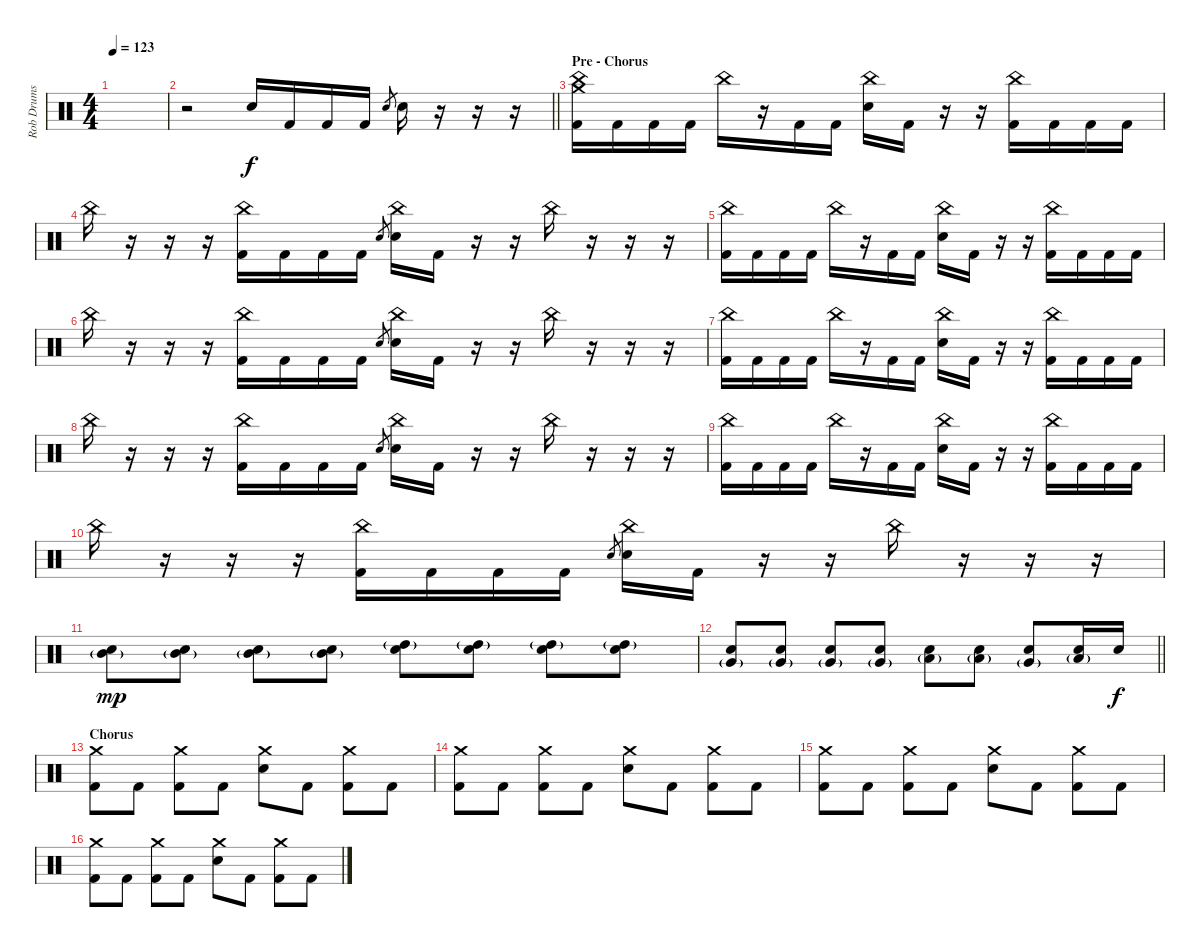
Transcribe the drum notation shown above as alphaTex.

\track ("Rob Drums" "Rob Drums") {instrument percussion}
\staff {score}
\articulation defaults
\ts (4 4)
\tempo 123
\clef neutral
\ks c
|
\barLineRight lightlight
r.2 "Electric Snare (hit)".16 "Kick (hit) 2".16 "Kick (hit) 2".16 "Kick (hit) 2".16 "Electric Snare (hit)".8{gr} "Electric Snare (hit)".16 r.16 r.16 r.16 |
\section ("" "Pre - Chorus")
("China (hit)" "Crash medium (hit)" "Kick (hit) 2").16 "Kick (hit) 2".16 "Kick (hit) 2".16 "Kick (hit) 2".16 "China (hit)".16 r.16 "Kick (hit) 2".16 "Kick (hit) 2".16 ("China (hit)" "Electric Snare (hit)").16 "Kick (hit) 2".16 r.16 r.16 ("China (hit)" "Kick (hit) 2").16 "Kick (hit) 2".16 "Kick (hit) 2".16 "Kick (hit) 2".16 |
"China (hit)".16 r.16 r.16 r.16 ("China (hit)" "Kick (hit) 2").16 "Kick (hit) 2".16 "Kick (hit) 2".16 "Kick (hit) 2".16 "Electric Snare (hit)".8{gr} ("China (hit)" "Electric Snare (hit)").16 "Kick (hit) 2".16 r.16 r.16 "China (hit)".16 r.16 r.16 r.16 |
("China (hit)" "Kick (hit) 2").16 "Kick (hit) 2".16 "Kick (hit) 2".16 "Kick (hit) 2".16 "China (hit)".16 r.16 "Kick (hit) 2".16 "Kick (hit) 2".16 ("China (hit)" "Electric Snare (hit)").16 "Kick (hit) 2".16 r.16 r.16 ("China (hit)" "Kick (hit) 2").16 "Kick (hit) 2".16 "Kick (hit) 2".16 "Kick (hit) 2".16 |
"China (hit)".16 r.16 r.16 r.16 ("China (hit)" "Kick (hit) 2").16 "Kick (hit) 2".16 "Kick (hit) 2".16 "Kick (hit) 2".16 "Electric Snare (hit)".8{gr} ("China (hit)" "Electric Snare (hit)").16 "Kick (hit) 2".16 r.16 r.16 "China (hit)".16 r.16 r.16 r.16 |
("China (hit)" "Kick (hit) 2").16 "Kick (hit) 2".16 "Kick (hit) 2".16 "Kick (hit) 2".16 "China (hit)".16 r.16 "Kick (hit) 2".16 "Kick (hit) 2".16 ("China (hit)" "Electric Snare (hit)").16 "Kick (hit) 2".16 r.16 r.16 ("China (hit)" "Kick (hit) 2").16 "Kick (hit) 2".16 "Kick (hit) 2".16 "Kick (hit) 2".16 |
"China (hit)".16 r.16 r.16 r.16 ("China (hit)" "Kick (hit) 2").16 "Kick (hit) 2".16 "Kick (hit) 2".16 "Kick (hit) 2".16 "Electric Snare (hit)".8{gr} ("China (hit)" "Electric Snare (hit)").16 "Kick (hit) 2".16 r.16 r.16 "China (hit)".16 r.16 r.16 r.16 |
("China (hit)" "Kick (hit) 2").16 "Kick (hit) 2".16 "Kick (hit) 2".16 "Kick (hit) 2".16 "China (hit)".16 r.16 "Kick (hit) 2".16 "Kick (hit) 2".16 ("China (hit)" "Electric Snare (hit)").16 "Kick (hit) 2".16 r.16 r.16 ("China (hit)" "Kick (hit) 2").16 "Kick (hit) 2".16 "Kick (hit) 2".16 "Kick (hit) 2".16 |
"China (hit)".16 r.16 r.16 r.16 ("China (hit)" "Kick (hit) 2").16 "Kick (hit) 2".16 "Kick (hit) 2".16 "Kick (hit) 2".16 "Electric Snare (hit)".8{gr} ("China (hit)" "Electric Snare (hit)").16 "Kick (hit) 2".16 r.16 r.16 "China (hit)".16 r.16 r.16 r.16 |
("Electric Snare (hit)" "Mid Tom (hit)"{g}).8{dy mp} ("Electric Snare (hit)" "Mid Tom (hit)"{g}).8 ("Electric Snare (hit)" "Mid Tom (hit)"{g}).8 ("Electric Snare (hit)" "Mid Tom (hit)"{g}).8 ("Electric Snare (hit)" "High Tom (hit)"{g}).8 ("Electric Snare (hit)" "High Tom (hit)"{g}).8 ("Electric Snare (hit)" "High Tom (hit)"{g}).8 ("Electric Snare (hit)" "High Tom (hit)"{g}).8 |
\barLineRight lightlight
("Electric Snare (hit)" "Very Low Tom (hit)"{g}).8 ("Electric Snare (hit)" "Very Low Tom (hit)"{g}).8 ("Electric Snare (hit)" "Very Low Tom (hit)"{g}).8 ("Electric Snare (hit)" "Very Low Tom (hit)"{g}).8 ("Electric Snare (hit)" "Low Tom (hit)"{g}).8 ("Electric Snare (hit)" "Low Tom (hit)"{g}).8 ("Electric Snare (hit)" "Very Low Tom (hit)"{g}).8 ("Electric Snare (hit)" "Low Floor Tom (hit)"{g}).16 "Electric Snare (hit)".16{dy f} |
\section ("" "Chorus")
("Crash medium (hit)" "Kick (hit) 2").8 "Kick (hit) 2".8 ("Crash medium (hit)" "Kick (hit) 2").8 "Kick (hit) 2".8 ("Crash medium (hit)" "Electric Snare (hit)").8 "Kick (hit) 2".8 ("Crash medium (hit)" "Kick (hit) 2").8 "Kick (hit) 2".8 |
("Crash medium (hit)" "Kick (hit) 2").8 "Kick (hit) 2".8 ("Crash medium (hit)" "Kick (hit) 2").8 "Kick (hit) 2".8 ("Crash medium (hit)" "Electric Snare (hit)").8 "Kick (hit) 2".8 ("Crash medium (hit)" "Kick (hit) 2").8 "Kick (hit) 2".8 |
("Crash medium (hit)" "Kick (hit) 2").8 "Kick (hit) 2".8 ("Crash medium (hit)" "Kick (hit) 2").8 "Kick (hit) 2".8 ("Crash medium (hit)" "Electric Snare (hit)").8 "Kick (hit) 2".8 ("Crash medium (hit)" "Kick (hit) 2").8 "Kick (hit) 2".8 |
("Crash medium (hit)" "Kick (hit) 2").8 "Kick (hit) 2".8 ("Crash medium (hit)" "Kick (hit) 2").8 "Kick (hit) 2".8 ("Crash medium (hit)" "Electric Snare (hit)").8 "Kick (hit) 2".8 ("Crash medium (hit)" "Kick (hit) 2").8 "Kick (hit) 2".8
